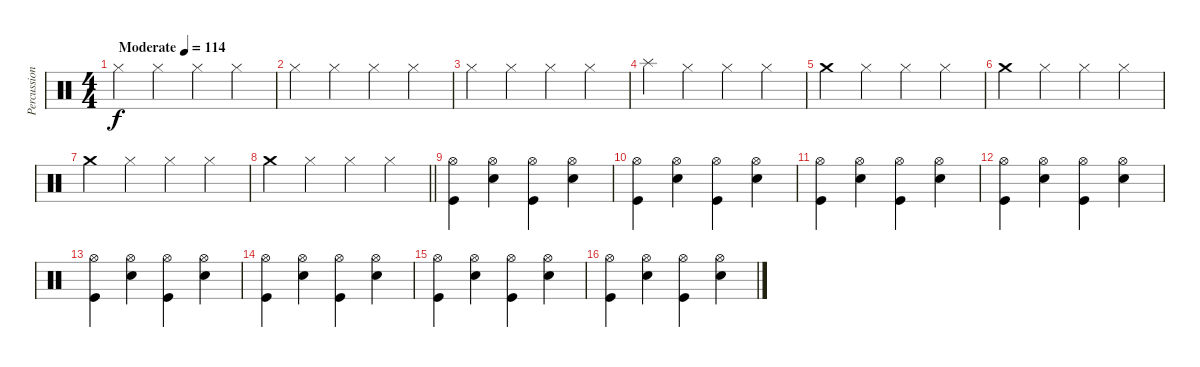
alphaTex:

\track ("Percussion" "Percussion") {solo instrument percussion}
\staff {score}
\articulation defaults
\ts (4 4)
\tempo (114 "Moderate")
\clef neutral
\ks c "Hi-Hat (closed)".4{dy f} "Hi-Hat (closed)".4 "Hi-Hat (closed)".4 "Hi-Hat (closed)".4
|
"Hi-Hat (closed)".4 "Hi-Hat (closed)".4 "Hi-Hat (closed)".4 "Hi-Hat (closed)".4 |
"Hi-Hat (closed)".4 "Hi-Hat (closed)".4 "Hi-Hat (closed)".4 "Hi-Hat (closed)".4 |
"Splash (hit)".4 "Hi-Hat (closed)".4 "Hi-Hat (closed)".4 "Hi-Hat (closed)".4 |
"Crash medium (hit)".4 "Hi-Hat (closed)".4 "Hi-Hat (closed)".4 "Hi-Hat (closed)".4 |
"Crash medium (hit)".4 "Hi-Hat (closed)".4 "Hi-Hat (closed)".4 "Hi-Hat (closed)".4 |
"Crash medium (hit)".4 "Hi-Hat (closed)".4 "Hi-Hat (closed)".4 "Hi-Hat (closed)".4 |
\barLineRight lightlight "Crash medium (hit)".4 "Hi-Hat (closed)".4 "Hi-Hat (closed)".4 "Hi-Hat (closed)".4
|
("Hi-Hat (open)" "Kick (hit)").4 ("Hi-Hat (open)" "Electric Snare (hit)").4 ("Hi-Hat (open)" "Kick (hit)").4 ("Hi-Hat (open)" "Electric Snare (hit)").4 |
("Hi-Hat (open)" "Kick (hit)").4 ("Hi-Hat (open)" "Electric Snare (hit)").4 ("Hi-Hat (open)" "Kick (hit)").4 ("Hi-Hat (open)" "Electric Snare (hit)").4 |
("Hi-Hat (open)" "Kick (hit)").4 ("Hi-Hat (open)" "Electric Snare (hit)").4 ("Hi-Hat (open)" "Kick (hit)").4 ("Hi-Hat (open)" "Electric Snare (hit)").4 |
("Hi-Hat (open)" "Kick (hit)").4 ("Hi-Hat (open)" "Electric Snare (hit)").4 ("Hi-Hat (open)" "Kick (hit)").4 ("Hi-Hat (open)" "Electric Snare (hit)").4 |
("Hi-Hat (open)" "Kick (hit)").4 ("Hi-Hat (open)" "Electric Snare (hit)").4 ("Hi-Hat (open)" "Kick (hit)").4 ("Hi-Hat (open)" "Electric Snare (hit)").4 |
("Hi-Hat (open)" "Kick (hit)").4 ("Hi-Hat (open)" "Electric Snare (hit)").4 ("Hi-Hat (open)" "Kick (hit)").4 ("Hi-Hat (open)" "Electric Snare (hit)").4 |
("Hi-Hat (open)" "Kick (hit)").4 ("Hi-Hat (open)" "Electric Snare (hit)").4 ("Hi-Hat (open)" "Kick (hit)").4 ("Hi-Hat (open)" "Electric Snare (hit)").4 |
("Hi-Hat (open)" "Kick (hit)").4 ("Hi-Hat (open)" "Electric Snare (hit)").4 ("Hi-Hat (open)" "Kick (hit)").4 ("Hi-Hat (open)" "Electric Snare (hit)").4
